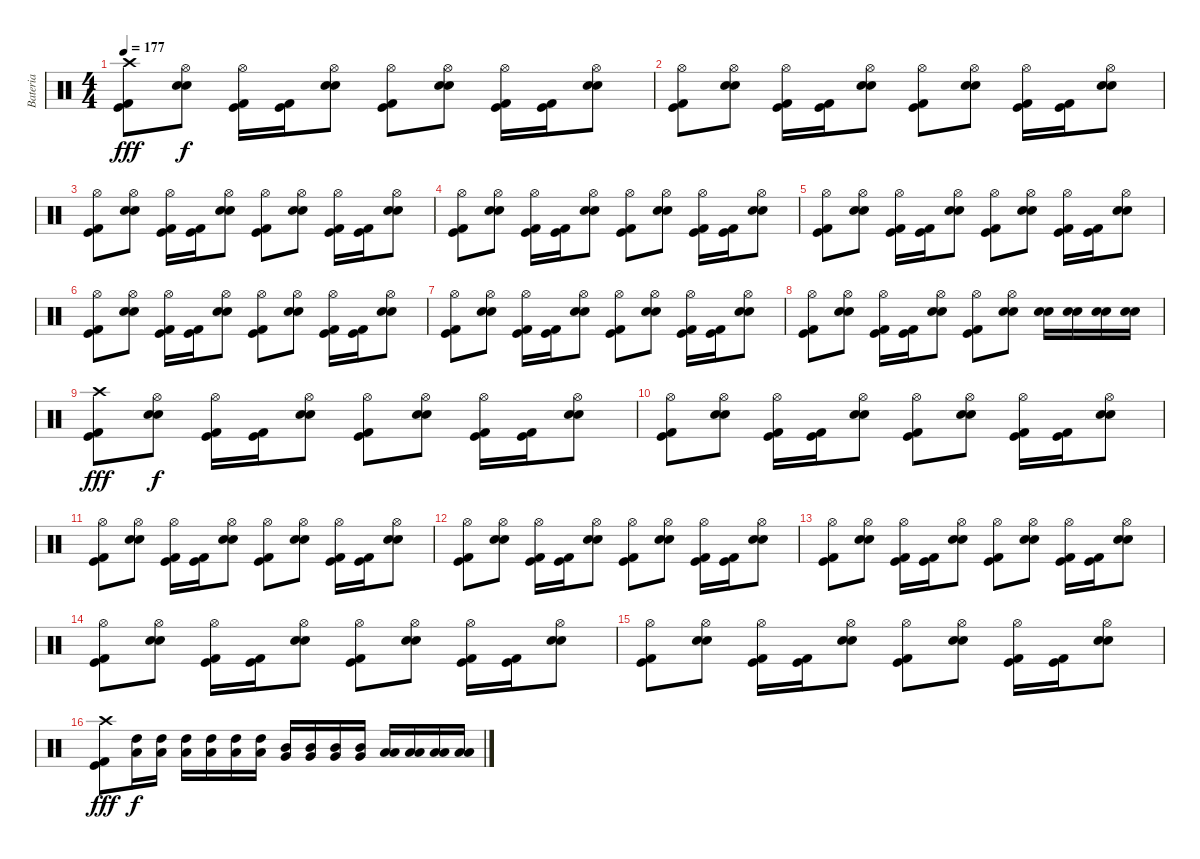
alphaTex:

\track ("Bateria" "Bateria") {instrument percussion}
\staff {score}
\articulation defaults
\ts (4 4)
\tempo 177
\clef neutral
\ks c
("Crash high (hit)" "Kick (hit) 2" "Kick (hit)").8{dy fff} ("Hi-Hat (open)" "Electric Snare (hit)" "Snare (hit) 2").8{dy f} ("Hi-Hat (open)" "Kick (hit) 2" "Kick (hit)").16 ("Kick (hit) 2" "Kick (hit)").16 ("Hi-Hat (open)" "Electric Snare (hit)" "Snare (hit) 2").8 ("Hi-Hat (open)" "Kick (hit) 2" "Kick (hit)").8 ("Hi-Hat (open)" "Electric Snare (hit)" "Snare (hit) 2").8 ("Hi-Hat (open)" "Kick (hit) 2" "Kick (hit)").16 ("Kick (hit) 2" "Kick (hit)").16 ("Hi-Hat (open)" "Electric Snare (hit)" "Snare (hit) 2").8 |
("Hi-Hat (open)" "Kick (hit) 2" "Kick (hit)").8 ("Hi-Hat (open)" "Electric Snare (hit)" "Snare (hit) 2").8 ("Hi-Hat (open)" "Kick (hit) 2" "Kick (hit)").16 ("Kick (hit) 2" "Kick (hit)").16 ("Hi-Hat (open)" "Electric Snare (hit)" "Snare (hit) 2").8 ("Hi-Hat (open)" "Kick (hit) 2" "Kick (hit)").8 ("Hi-Hat (open)" "Electric Snare (hit)" "Snare (hit) 2").8 ("Hi-Hat (open)" "Kick (hit) 2" "Kick (hit)").16 ("Kick (hit) 2" "Kick (hit)").16 ("Hi-Hat (open)" "Electric Snare (hit)" "Snare (hit) 2").8 |
("Hi-Hat (open)" "Kick (hit) 2" "Kick (hit)").8 ("Hi-Hat (open)" "Electric Snare (hit)" "Snare (hit) 2").8 ("Hi-Hat (open)" "Kick (hit) 2" "Kick (hit)").16 ("Kick (hit) 2" "Kick (hit)").16 ("Hi-Hat (open)" "Electric Snare (hit)" "Snare (hit) 2").8 ("Hi-Hat (open)" "Kick (hit) 2" "Kick (hit)").8 ("Hi-Hat (open)" "Electric Snare (hit)" "Snare (hit) 2").8 ("Hi-Hat (open)" "Kick (hit) 2" "Kick (hit)").16 ("Kick (hit) 2" "Kick (hit)").16 ("Hi-Hat (open)" "Electric Snare (hit)" "Snare (hit) 2").8 |
("Hi-Hat (open)" "Kick (hit) 2" "Kick (hit)").8 ("Hi-Hat (open)" "Electric Snare (hit)" "Snare (hit) 2").8 ("Hi-Hat (open)" "Kick (hit) 2" "Kick (hit)").16 ("Kick (hit) 2" "Kick (hit)").16 ("Hi-Hat (open)" "Electric Snare (hit)" "Snare (hit) 2").8 ("Hi-Hat (open)" "Kick (hit) 2" "Kick (hit)").8 ("Hi-Hat (open)" "Electric Snare (hit)" "Snare (hit) 2").8 ("Hi-Hat (open)" "Kick (hit) 2" "Kick (hit)").16 ("Kick (hit) 2" "Kick (hit)").16 ("Hi-Hat (open)" "Electric Snare (hit)" "Snare (hit) 2").8 |
("Hi-Hat (open)" "Kick (hit) 2" "Kick (hit)").8 ("Hi-Hat (open)" "Electric Snare (hit)" "Snare (hit) 2").8 ("Hi-Hat (open)" "Kick (hit) 2" "Kick (hit)").16 ("Kick (hit) 2" "Kick (hit)").16 ("Hi-Hat (open)" "Electric Snare (hit)" "Snare (hit) 2").8 ("Hi-Hat (open)" "Kick (hit) 2" "Kick (hit)").8 ("Hi-Hat (open)" "Electric Snare (hit)" "Snare (hit) 2").8 ("Hi-Hat (open)" "Kick (hit) 2" "Kick (hit)").16 ("Kick (hit) 2" "Kick (hit)").16 ("Hi-Hat (open)" "Electric Snare (hit)" "Snare (hit) 2").8 |
("Hi-Hat (open)" "Kick (hit) 2" "Kick (hit)").8 ("Hi-Hat (open)" "Electric Snare (hit)" "Snare (hit) 2").8 ("Hi-Hat (open)" "Kick (hit) 2" "Kick (hit)").16 ("Kick (hit) 2" "Kick (hit)").16 ("Hi-Hat (open)" "Electric Snare (hit)" "Snare (hit) 2").8 ("Hi-Hat (open)" "Kick (hit) 2" "Kick (hit)").8 ("Hi-Hat (open)" "Electric Snare (hit)" "Snare (hit) 2").8 ("Hi-Hat (open)" "Kick (hit) 2" "Kick (hit)").16 ("Kick (hit) 2" "Kick (hit)").16 ("Hi-Hat (open)" "Electric Snare (hit)" "Snare (hit) 2").8 |
("Hi-Hat (open)" "Kick (hit) 2" "Kick (hit)").8 ("Hi-Hat (open)" "Electric Snare (hit)" "Snare (hit) 2").8 ("Hi-Hat (open)" "Kick (hit) 2" "Kick (hit)").16 ("Kick (hit) 2" "Kick (hit)").16 ("Hi-Hat (open)" "Electric Snare (hit)" "Snare (hit) 2").8 ("Hi-Hat (open)" "Kick (hit) 2" "Kick (hit)").8 ("Hi-Hat (open)" "Electric Snare (hit)" "Snare (hit) 2").8 ("Hi-Hat (open)" "Kick (hit) 2" "Kick (hit)").16 ("Kick (hit) 2" "Kick (hit)").16 ("Hi-Hat (open)" "Electric Snare (hit)" "Snare (hit) 2").8 |
("Hi-Hat (open)" "Kick (hit) 2" "Kick (hit)").8 ("Hi-Hat (open)" "Electric Snare (hit)" "Snare (hit) 2").8 ("Hi-Hat (open)" "Kick (hit) 2" "Kick (hit)").16 ("Kick (hit) 2" "Kick (hit)").16 ("Hi-Hat (open)" "Electric Snare (hit)" "Snare (hit) 2").8 ("Hi-Hat (open)" "Kick (hit) 2" "Kick (hit)").8 ("Hi-Hat (open)" "Electric Snare (hit)" "Snare (hit) 2").8 ("Electric Snare (hit)" "Snare (hit) 2").16 ("Electric Snare (hit)" "Snare (hit) 2").16 ("Electric Snare (hit)" "Snare (hit) 2").16 ("Electric Snare (hit)" "Snare (hit) 2").16 |
("Crash high (hit)" "Kick (hit) 2" "Kick (hit)").8{dy fff} ("Hi-Hat (open)" "Electric Snare (hit)" "Snare (hit) 2").8{dy f} ("Hi-Hat (open)" "Kick (hit) 2" "Kick (hit)").16 ("Kick (hit) 2" "Kick (hit)").16 ("Hi-Hat (open)" "Electric Snare (hit)" "Snare (hit) 2").8 ("Hi-Hat (open)" "Kick (hit) 2" "Kick (hit)").8 ("Hi-Hat (open)" "Electric Snare (hit)" "Snare (hit) 2").8 ("Hi-Hat (open)" "Kick (hit) 2" "Kick (hit)").16 ("Kick (hit) 2" "Kick (hit)").16 ("Hi-Hat (open)" "Electric Snare (hit)" "Snare (hit) 2").8 |
("Hi-Hat (open)" "Kick (hit) 2" "Kick (hit)").8 ("Hi-Hat (open)" "Electric Snare (hit)" "Snare (hit) 2").8 ("Hi-Hat (open)" "Kick (hit) 2" "Kick (hit)").16 ("Kick (hit) 2" "Kick (hit)").16 ("Hi-Hat (open)" "Electric Snare (hit)" "Snare (hit) 2").8 ("Hi-Hat (open)" "Kick (hit) 2" "Kick (hit)").8 ("Hi-Hat (open)" "Electric Snare (hit)" "Snare (hit) 2").8 ("Hi-Hat (open)" "Kick (hit) 2" "Kick (hit)").16 ("Kick (hit) 2" "Kick (hit)").16 ("Hi-Hat (open)" "Electric Snare (hit)" "Snare (hit) 2").8 |
("Hi-Hat (open)" "Kick (hit) 2" "Kick (hit)").8 ("Hi-Hat (open)" "Electric Snare (hit)" "Snare (hit) 2").8 ("Hi-Hat (open)" "Kick (hit) 2" "Kick (hit)").16 ("Kick (hit) 2" "Kick (hit)").16 ("Hi-Hat (open)" "Electric Snare (hit)" "Snare (hit) 2").8 ("Hi-Hat (open)" "Kick (hit) 2" "Kick (hit)").8 ("Hi-Hat (open)" "Electric Snare (hit)" "Snare (hit) 2").8 ("Hi-Hat (open)" "Kick (hit) 2" "Kick (hit)").16 ("Kick (hit) 2" "Kick (hit)").16 ("Hi-Hat (open)" "Electric Snare (hit)" "Snare (hit) 2").8 |
("Hi-Hat (open)" "Kick (hit) 2" "Kick (hit)").8 ("Hi-Hat (open)" "Electric Snare (hit)" "Snare (hit) 2").8 ("Hi-Hat (open)" "Kick (hit) 2" "Kick (hit)").16 ("Kick (hit) 2" "Kick (hit)").16 ("Hi-Hat (open)" "Electric Snare (hit)" "Snare (hit) 2").8 ("Hi-Hat (open)" "Kick (hit) 2" "Kick (hit)").8 ("Hi-Hat (open)" "Electric Snare (hit)" "Snare (hit) 2").8 ("Hi-Hat (open)" "Kick (hit) 2" "Kick (hit)").16 ("Kick (hit) 2" "Kick (hit)").16 ("Hi-Hat (open)" "Electric Snare (hit)" "Snare (hit) 2").8 |
("Hi-Hat (open)" "Kick (hit) 2" "Kick (hit)").8 ("Hi-Hat (open)" "Electric Snare (hit)" "Snare (hit) 2").8 ("Hi-Hat (open)" "Kick (hit) 2" "Kick (hit)").16 ("Kick (hit) 2" "Kick (hit)").16 ("Hi-Hat (open)" "Electric Snare (hit)" "Snare (hit) 2").8 ("Hi-Hat (open)" "Kick (hit) 2" "Kick (hit)").8 ("Hi-Hat (open)" "Electric Snare (hit)" "Snare (hit) 2").8 ("Hi-Hat (open)" "Kick (hit) 2" "Kick (hit)").16 ("Kick (hit) 2" "Kick (hit)").16 ("Hi-Hat (open)" "Electric Snare (hit)" "Snare (hit) 2").8 |
("Hi-Hat (open)" "Kick (hit) 2" "Kick (hit)").8 ("Hi-Hat (open)" "Electric Snare (hit)" "Snare (hit) 2").8 ("Hi-Hat (open)" "Kick (hit) 2" "Kick (hit)").16 ("Kick (hit) 2" "Kick (hit)").16 ("Hi-Hat (open)" "Electric Snare (hit)" "Snare (hit) 2").8 ("Hi-Hat (open)" "Kick (hit) 2" "Kick (hit)").8 ("Hi-Hat (open)" "Electric Snare (hit)" "Snare (hit) 2").8 ("Hi-Hat (open)" "Kick (hit) 2" "Kick (hit)").16 ("Kick (hit) 2" "Kick (hit)").16 ("Hi-Hat (open)" "Electric Snare (hit)" "Snare (hit) 2").8 |
("Hi-Hat (open)" "Kick (hit) 2" "Kick (hit)").8 ("Hi-Hat (open)" "Electric Snare (hit)" "Snare (hit) 2").8 ("Hi-Hat (open)" "Kick (hit) 2" "Kick (hit)").16 ("Kick (hit) 2" "Kick (hit)").16 ("Hi-Hat (open)" "Electric Snare (hit)" "Snare (hit) 2").8 ("Hi-Hat (open)" "Kick (hit) 2" "Kick (hit)").8 ("Hi-Hat (open)" "Electric Snare (hit)" "Snare (hit) 2").8 ("Hi-Hat (open)" "Kick (hit) 2" "Kick (hit)").16 ("Kick (hit) 2" "Kick (hit)").16 ("Hi-Hat (open)" "Electric Snare (hit)" "Snare (hit) 2").8 |
("Crash high (hit)" "Kick (hit) 2" "Kick (hit)").8{dy fff} ("High Tom (hit)" "Low Tom (hit)").16{dy f} ("High Tom (hit)" "Low Tom (hit)").16 ("High Tom (hit)" "Low Tom (hit)").16 ("High Tom (hit)" "Low Tom (hit)").16 ("High Tom (hit)" "Low Tom (hit)").16 ("High Tom (hit)" "Low Tom (hit)").16 ("Mid Tom (hit)" "Very Low Tom (hit)").16 ("Mid Tom (hit)" "Very Low Tom (hit)").16 ("Mid Tom (hit)" "Very Low Tom (hit)").16 ("Mid Tom (hit)" "Very Low Tom (hit)").16 ("Low Tom (hit)" "Low Floor Tom (hit)").16 ("Low Tom (hit)" "Low Floor Tom (hit)").16 ("Low Tom (hit)" "Low Floor Tom (hit)").16 ("Low Tom (hit)" "Low Floor Tom (hit)").16
